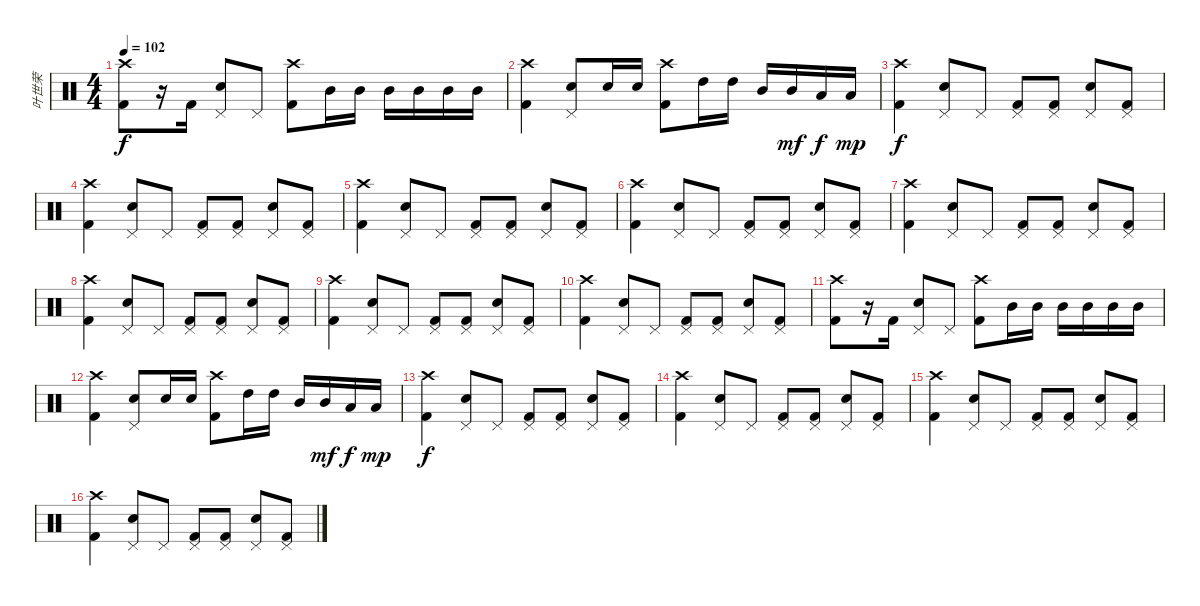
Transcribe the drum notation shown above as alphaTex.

\track ("叶世荣" "叶世荣") {instrument percussion}
\staff {score}
\articulation defaults
\ts (4 4)
\tempo 102
\clef neutral
\ks c
("Crash high (hit)" "Kick (hit) 2").8{dy f} r.16 "Kick (hit) 2".16 ("Pedal Hi-Hat (hit)" "Snare (hit) 2").8 "Pedal Hi-Hat (hit)".8 ("Crash high (hit)" "Kick (hit) 2").8 "Mid Tom (hit)".16 "Mid Tom (hit)".16 "Mid Tom (hit)".16 "Mid Tom (hit)".16 "Mid Tom (hit)".16 "Mid Tom (hit)".16 |
("Crash high (hit)" "Kick (hit) 2").4 ("Pedal Hi-Hat (hit)" "Snare (hit) 2").8 "Snare (hit) 2".16 "Snare (hit) 2".16 ("Crash high (hit)" "Kick (hit) 2").8 "High Tom (hit)".16 "High Tom (hit)".16 "Mid Tom (hit)".16 "Mid Tom (hit)".16{dy mf} "Low Tom (hit)".16{dy f} "Low Tom (hit)".16{dy mp} |
("Crash high (hit)" "Kick (hit) 2").4{dy f} ("Pedal Hi-Hat (hit)" "Snare (hit) 2").8 "Pedal Hi-Hat (hit)".8 ("Pedal Hi-Hat (hit)" "Kick (hit) 2").8 ("Pedal Hi-Hat (hit)" "Kick (hit) 2").8 ("Pedal Hi-Hat (hit)" "Snare (hit) 2").8 ("Pedal Hi-Hat (hit)" "Kick (hit) 2").8 |
("Crash high (hit)" "Kick (hit) 2").4 ("Pedal Hi-Hat (hit)" "Snare (hit) 2").8 "Pedal Hi-Hat (hit)".8 ("Pedal Hi-Hat (hit)" "Kick (hit) 2").8 ("Pedal Hi-Hat (hit)" "Kick (hit) 2").8 ("Pedal Hi-Hat (hit)" "Snare (hit) 2").8 ("Pedal Hi-Hat (hit)" "Kick (hit) 2").8 |
("Crash high (hit)" "Kick (hit) 2").4 ("Pedal Hi-Hat (hit)" "Snare (hit) 2").8 "Pedal Hi-Hat (hit)".8 ("Pedal Hi-Hat (hit)" "Kick (hit) 2").8 ("Pedal Hi-Hat (hit)" "Kick (hit) 2").8 ("Pedal Hi-Hat (hit)" "Snare (hit) 2").8 ("Pedal Hi-Hat (hit)" "Kick (hit) 2").8 |
("Crash high (hit)" "Kick (hit) 2").4 ("Pedal Hi-Hat (hit)" "Snare (hit) 2").8 "Pedal Hi-Hat (hit)".8 ("Pedal Hi-Hat (hit)" "Kick (hit) 2").8 ("Pedal Hi-Hat (hit)" "Kick (hit) 2").8 ("Pedal Hi-Hat (hit)" "Snare (hit) 2").8 ("Pedal Hi-Hat (hit)" "Kick (hit) 2").8 |
("Crash high (hit)" "Kick (hit) 2").4 ("Pedal Hi-Hat (hit)" "Snare (hit) 2").8 "Pedal Hi-Hat (hit)".8 ("Pedal Hi-Hat (hit)" "Kick (hit) 2").8 ("Pedal Hi-Hat (hit)" "Kick (hit) 2").8 ("Pedal Hi-Hat (hit)" "Snare (hit) 2").8 ("Pedal Hi-Hat (hit)" "Kick (hit) 2").8 |
("Crash high (hit)" "Kick (hit) 2").4 ("Pedal Hi-Hat (hit)" "Snare (hit) 2").8 "Pedal Hi-Hat (hit)".8 ("Pedal Hi-Hat (hit)" "Kick (hit) 2").8 ("Pedal Hi-Hat (hit)" "Kick (hit) 2").8 ("Pedal Hi-Hat (hit)" "Snare (hit) 2").8 ("Pedal Hi-Hat (hit)" "Kick (hit) 2").8 |
("Crash high (hit)" "Kick (hit) 2").4 ("Pedal Hi-Hat (hit)" "Snare (hit) 2").8 "Pedal Hi-Hat (hit)".8 ("Pedal Hi-Hat (hit)" "Kick (hit) 2").8 ("Pedal Hi-Hat (hit)" "Kick (hit) 2").8 ("Pedal Hi-Hat (hit)" "Snare (hit) 2").8 ("Pedal Hi-Hat (hit)" "Kick (hit) 2").8 |
("Crash high (hit)" "Kick (hit) 2").4 ("Pedal Hi-Hat (hit)" "Snare (hit) 2").8 "Pedal Hi-Hat (hit)".8 ("Pedal Hi-Hat (hit)" "Kick (hit) 2").8 ("Pedal Hi-Hat (hit)" "Kick (hit) 2").8 ("Pedal Hi-Hat (hit)" "Snare (hit) 2").8 ("Pedal Hi-Hat (hit)" "Kick (hit) 2").8 |
("Crash high (hit)" "Kick (hit) 2").8 r.16 "Kick (hit) 2".16 ("Pedal Hi-Hat (hit)" "Snare (hit) 2").8 "Pedal Hi-Hat (hit)".8 ("Crash high (hit)" "Kick (hit) 2").8 "Mid Tom (hit)".16 "Mid Tom (hit)".16 "Mid Tom (hit)".16 "Mid Tom (hit)".16 "Mid Tom (hit)".16 "Mid Tom (hit)".16 |
("Crash high (hit)" "Kick (hit) 2").4 ("Pedal Hi-Hat (hit)" "Snare (hit) 2").8 "Snare (hit) 2".16 "Snare (hit) 2".16 ("Crash high (hit)" "Kick (hit) 2").8 "High Tom (hit)".16 "High Tom (hit)".16 "Mid Tom (hit)".16 "Mid Tom (hit)".16{dy mf} "Low Tom (hit)".16{dy f} "Low Tom (hit)".16{dy mp} |
("Crash high (hit)" "Kick (hit) 2").4{dy f} ("Pedal Hi-Hat (hit)" "Snare (hit) 2").8 "Pedal Hi-Hat (hit)".8 ("Pedal Hi-Hat (hit)" "Kick (hit) 2").8 ("Pedal Hi-Hat (hit)" "Kick (hit) 2").8 ("Pedal Hi-Hat (hit)" "Snare (hit) 2").8 ("Pedal Hi-Hat (hit)" "Kick (hit) 2").8 |
("Crash high (hit)" "Kick (hit) 2").4 ("Pedal Hi-Hat (hit)" "Snare (hit) 2").8 "Pedal Hi-Hat (hit)".8 ("Pedal Hi-Hat (hit)" "Kick (hit) 2").8 ("Pedal Hi-Hat (hit)" "Kick (hit) 2").8 ("Pedal Hi-Hat (hit)" "Snare (hit) 2").8 ("Pedal Hi-Hat (hit)" "Kick (hit) 2").8 |
("Crash high (hit)" "Kick (hit) 2").4 ("Pedal Hi-Hat (hit)" "Snare (hit) 2").8 "Pedal Hi-Hat (hit)".8 ("Pedal Hi-Hat (hit)" "Kick (hit) 2").8 ("Pedal Hi-Hat (hit)" "Kick (hit) 2").8 ("Pedal Hi-Hat (hit)" "Snare (hit) 2").8 ("Pedal Hi-Hat (hit)" "Kick (hit) 2").8 |
("Crash high (hit)" "Kick (hit) 2").4 ("Pedal Hi-Hat (hit)" "Snare (hit) 2").8 "Pedal Hi-Hat (hit)".8 ("Pedal Hi-Hat (hit)" "Kick (hit) 2").8 ("Pedal Hi-Hat (hit)" "Kick (hit) 2").8 ("Pedal Hi-Hat (hit)" "Snare (hit) 2").8 ("Pedal Hi-Hat (hit)" "Kick (hit) 2").8
